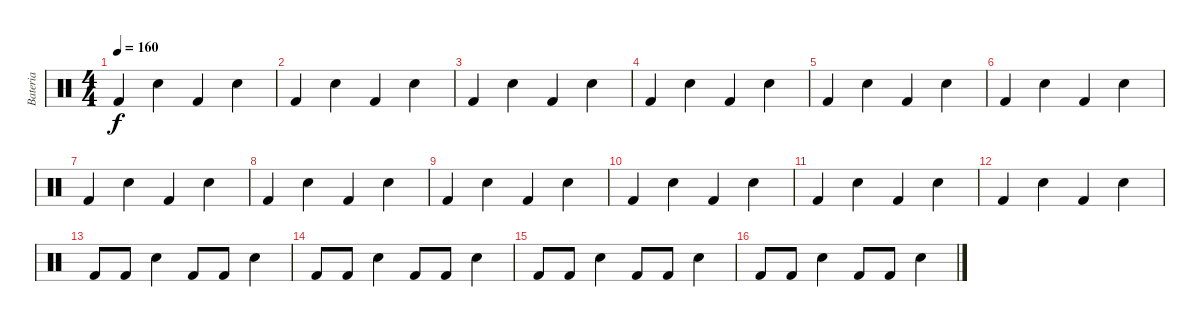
\track ("Bateria" "Bateria") {instrument percussion}
\staff {score}
\articulation defaults
\ts (4 4)
\tempo 160
\clef neutral
\ks c "Kick (hit) 2".4{dy f} "Snare (hit) 2".4 "Kick (hit) 2".4 "Snare (hit) 2".4
|
"Kick (hit) 2".4 "Snare (hit) 2".4 "Kick (hit) 2".4 "Snare (hit) 2".4 |
"Kick (hit) 2".4 "Snare (hit) 2".4 "Kick (hit) 2".4 "Snare (hit) 2".4 |
"Kick (hit) 2".4 "Snare (hit) 2".4 "Kick (hit) 2".4 "Snare (hit) 2".4 |
"Kick (hit) 2".4 "Snare (hit) 2".4 "Kick (hit) 2".4 "Snare (hit) 2".4 |
"Kick (hit) 2".4 "Snare (hit) 2".4 "Kick (hit) 2".4 "Snare (hit) 2".4 |
"Kick (hit) 2".4 "Snare (hit) 2".4 "Kick (hit) 2".4 "Snare (hit) 2".4 |
"Kick (hit) 2".4 "Snare (hit) 2".4 "Kick (hit) 2".4 "Snare (hit) 2".4 |
"Kick (hit) 2".4 "Snare (hit) 2".4 "Kick (hit) 2".4 "Snare (hit) 2".4 |
"Kick (hit) 2".4 "Snare (hit) 2".4 "Kick (hit) 2".4 "Snare (hit) 2".4 |
"Kick (hit) 2".4 "Snare (hit) 2".4 "Kick (hit) 2".4 "Snare (hit) 2".4 |
"Kick (hit) 2".4 "Snare (hit) 2".4 "Kick (hit) 2".4 "Snare (hit) 2".4 |
"Kick (hit) 2".8 "Kick (hit) 2".8 "Snare (hit) 2".4 "Kick (hit) 2".8 "Kick (hit) 2".8 "Snare (hit) 2".4 |
"Kick (hit) 2".8 "Kick (hit) 2".8 "Snare (hit) 2".4 "Kick (hit) 2".8 "Kick (hit) 2".8 "Snare (hit) 2".4 |
"Kick (hit) 2".8 "Kick (hit) 2".8 "Snare (hit) 2".4 "Kick (hit) 2".8 "Kick (hit) 2".8 "Snare (hit) 2".4 |
"Kick (hit) 2".8 "Kick (hit) 2".8 "Snare (hit) 2".4 "Kick (hit) 2".8 "Kick (hit) 2".8 "Snare (hit) 2".4
